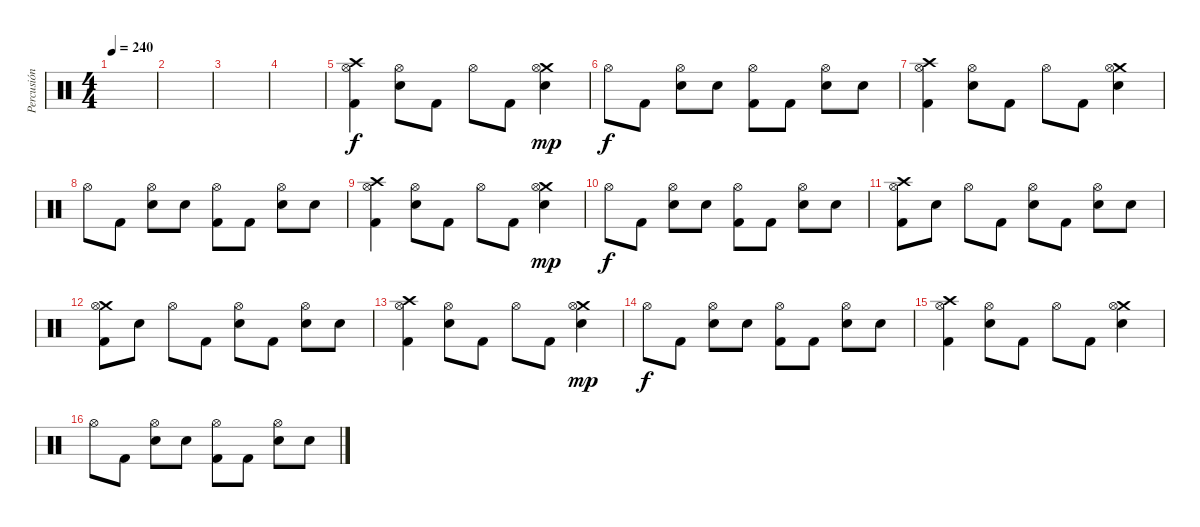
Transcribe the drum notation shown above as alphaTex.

\track ("Percusión" "Percusión") {instrument percussion}
\staff {score}
\articulation defaults
\ts (4 4)
\tempo 240
\clef neutral
\ks c
|
|
|
|
("Crash high (hit)" "Hi-Hat (open)" "Kick (hit) 2").4 ("Hi-Hat (open)" "Snare (hit) 2").8 "Kick (hit) 2".8 "Hi-Hat (open)".8 "Kick (hit) 2".8 ("Crash medium (hit)" "Hi-Hat (open)" "Snare (hit) 2").4{dy mp} |
"Hi-Hat (open)".8{dy f} "Kick (hit) 2".8 ("Hi-Hat (open)" "Snare (hit) 2").8 "Snare (hit) 2".8 ("Hi-Hat (open)" "Kick (hit) 2").8 "Kick (hit) 2".8 ("Hi-Hat (open)" "Snare (hit) 2").8 "Snare (hit) 2".8 |
("Crash high (hit)" "Hi-Hat (open)" "Kick (hit) 2").4 ("Hi-Hat (open)" "Snare (hit) 2").8 "Kick (hit) 2".8 "Hi-Hat (open)".8 "Kick (hit) 2".8 ("Crash medium (hit)" "Hi-Hat (open)" "Snare (hit) 2").4 |
"Hi-Hat (open)".8 "Kick (hit) 2".8 ("Hi-Hat (open)" "Snare (hit) 2").8 "Snare (hit) 2".8 ("Hi-Hat (open)" "Kick (hit) 2").8 "Kick (hit) 2".8 ("Hi-Hat (open)" "Snare (hit) 2").8 "Snare (hit) 2".8 |
("Crash high (hit)" "Hi-Hat (open)" "Kick (hit) 2").4 ("Hi-Hat (open)" "Snare (hit) 2").8 "Kick (hit) 2".8 "Hi-Hat (open)".8 "Kick (hit) 2".8 ("Crash medium (hit)" "Hi-Hat (open)" "Snare (hit) 2").4{dy mp} |
"Hi-Hat (open)".8{dy f} "Kick (hit) 2".8 ("Hi-Hat (open)" "Snare (hit) 2").8 "Snare (hit) 2".8 ("Hi-Hat (open)" "Kick (hit) 2").8 "Kick (hit) 2".8 ("Hi-Hat (open)" "Snare (hit) 2").8 "Snare (hit) 2".8 |
("Crash high (hit)" "Hi-Hat (open)" "Kick (hit) 2").8 "Snare (hit) 2".8 "Hi-Hat (open)".8 "Kick (hit) 2".8 ("Hi-Hat (open)" "Snare (hit) 2").8 "Kick (hit) 2".8 ("Hi-Hat (open)" "Snare (hit) 2").8 "Snare (hit) 2".8 |
("Crash medium (hit)" "Hi-Hat (open)" "Kick (hit) 2").8 "Snare (hit) 2".8 "Hi-Hat (open)".8 "Kick (hit) 2".8 ("Hi-Hat (open)" "Snare (hit) 2").8 "Kick (hit) 2".8 ("Hi-Hat (open)" "Snare (hit) 2").8 "Snare (hit) 2".8 |
("Crash high (hit)" "Hi-Hat (open)" "Kick (hit) 2").4 ("Hi-Hat (open)" "Snare (hit) 2").8 "Kick (hit) 2".8 "Hi-Hat (open)".8 "Kick (hit) 2".8 ("Crash medium (hit)" "Hi-Hat (open)" "Snare (hit) 2").4{dy mp} |
"Hi-Hat (open)".8{dy f} "Kick (hit) 2".8 ("Hi-Hat (open)" "Snare (hit) 2").8 "Snare (hit) 2".8 ("Hi-Hat (open)" "Kick (hit) 2").8 "Kick (hit) 2".8 ("Hi-Hat (open)" "Snare (hit) 2").8 "Snare (hit) 2".8 |
("Crash high (hit)" "Hi-Hat (open)" "Kick (hit) 2").4 ("Hi-Hat (open)" "Snare (hit) 2").8 "Kick (hit) 2".8 "Hi-Hat (open)".8 "Kick (hit) 2".8 ("Crash medium (hit)" "Hi-Hat (open)" "Snare (hit) 2").4 |
"Hi-Hat (open)".8 "Kick (hit) 2".8 ("Hi-Hat (open)" "Snare (hit) 2").8 "Snare (hit) 2".8 ("Hi-Hat (open)" "Kick (hit) 2").8 "Kick (hit) 2".8 ("Hi-Hat (open)" "Snare (hit) 2").8 "Snare (hit) 2".8
